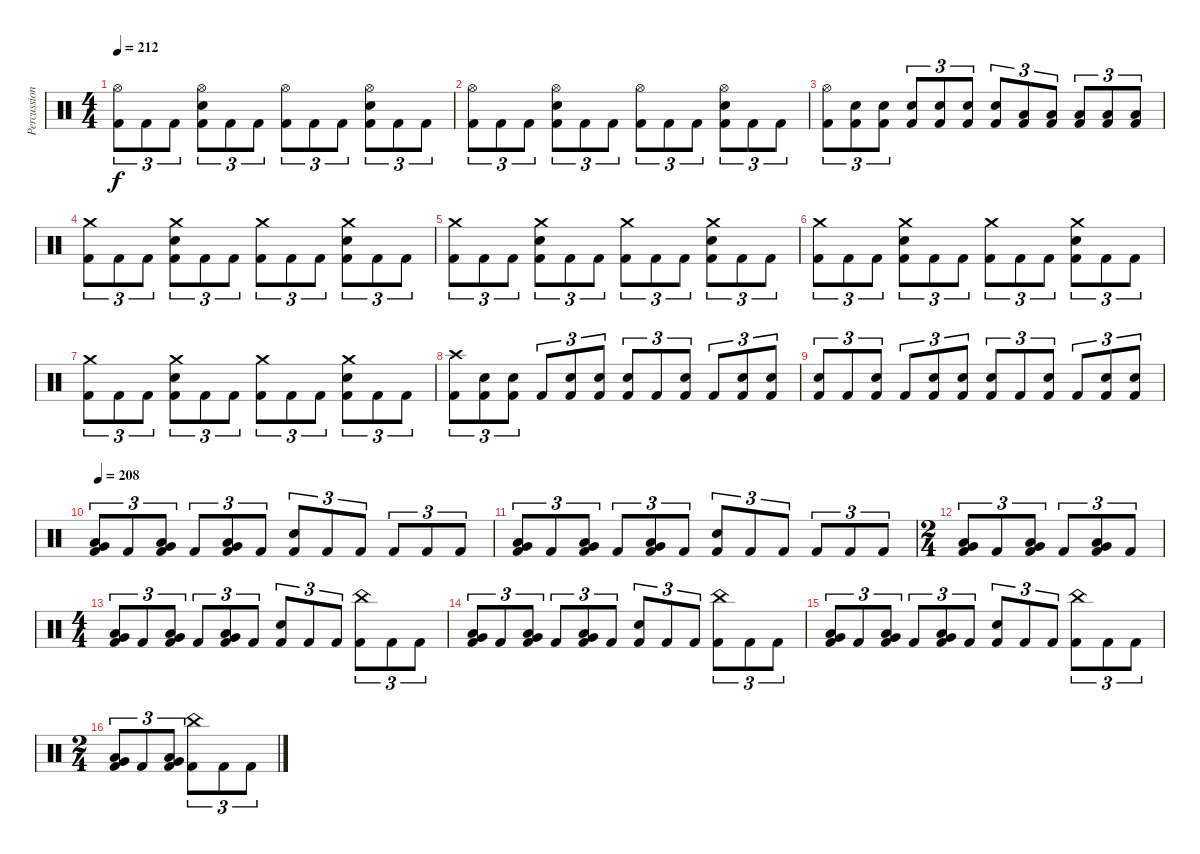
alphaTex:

\track ("Percussion" "Percussion") {instrument percussion}
\staff {score}
\articulation defaults
\ts (4 4)
\tempo 212
\clef neutral
\ks c
("Hi-Hat (open)" "Kick (hit) 2").8{tu (3 2) dy f} "Kick (hit) 2".8{tu (3 2)} "Kick (hit) 2".8{tu (3 2)} ("Hi-Hat (open)" "Snare (hit) 2" "Kick (hit) 2").8{tu (3 2)} "Kick (hit) 2".8{tu (3 2)} "Kick (hit) 2".8{tu (3 2)} ("Hi-Hat (open)" "Kick (hit) 2").8{tu (3 2)} "Kick (hit) 2".8{tu (3 2)} "Kick (hit) 2".8{tu (3 2)} ("Hi-Hat (open)" "Snare (hit) 2" "Kick (hit) 2").8{tu (3 2)} "Kick (hit) 2".8{tu (3 2)} "Kick (hit) 2".8{tu (3 2)} |
("Hi-Hat (open)" "Kick (hit) 2").8{tu (3 2)} "Kick (hit) 2".8{tu (3 2)} "Kick (hit) 2".8{tu (3 2)} ("Hi-Hat (open)" "Snare (hit) 2" "Kick (hit) 2").8{tu (3 2)} "Kick (hit) 2".8{tu (3 2)} "Kick (hit) 2".8{tu (3 2)} ("Hi-Hat (open)" "Kick (hit) 2").8{tu (3 2)} "Kick (hit) 2".8{tu (3 2)} "Kick (hit) 2".8{tu (3 2)} ("Hi-Hat (open)" "Snare (hit) 2" "Kick (hit) 2").8{tu (3 2)} "Kick (hit) 2".8{tu (3 2)} "Kick (hit) 2".8{tu (3 2)} |
("Hi-Hat (open)" "Kick (hit) 2").8{tu (3 2)} ("Snare (hit) 2" "Kick (hit) 2").8{tu (3 2)} ("Snare (hit) 2" "Kick (hit) 2").8{tu (3 2)} ("Snare (hit) 2" "Kick (hit) 2").8{tu (3 2)} ("Snare (hit) 2" "Kick (hit) 2").8{tu (3 2)} ("Snare (hit) 2" "Kick (hit) 2").8{tu (3 2)} ("Snare (hit) 2" "Kick (hit) 2").8{tu (3 2)} ("Low Tom (hit)" "Kick (hit) 2").8{tu (3 2)} ("Low Tom (hit)" "Kick (hit) 2").8{tu (3 2)} ("Low Tom (hit)" "Kick (hit) 2").8{tu (3 2)} ("Low Tom (hit)" "Kick (hit) 2").8{tu (3 2)} ("Low Tom (hit)" "Kick (hit) 2").8{tu (3 2)} |
("Crash medium (hit)" "Kick (hit) 2").8{tu (3 2)} "Kick (hit) 2".8{tu (3 2)} "Kick (hit) 2".8{tu (3 2)} ("Crash medium (hit)" "Snare (hit) 2" "Kick (hit) 2").8{tu (3 2)} "Kick (hit) 2".8{tu (3 2)} "Kick (hit) 2".8{tu (3 2)} ("Crash medium (hit)" "Kick (hit) 2").8{tu (3 2)} "Kick (hit) 2".8{tu (3 2)} "Kick (hit) 2".8{tu (3 2)} ("Crash medium (hit)" "Snare (hit) 2" "Kick (hit) 2").8{tu (3 2)} "Kick (hit) 2".8{tu (3 2)} "Kick (hit) 2".8{tu (3 2)} |
("Crash medium (hit)" "Kick (hit) 2").8{tu (3 2)} "Kick (hit) 2".8{tu (3 2)} "Kick (hit) 2".8{tu (3 2)} ("Crash medium (hit)" "Snare (hit) 2" "Kick (hit) 2").8{tu (3 2)} "Kick (hit) 2".8{tu (3 2)} "Kick (hit) 2".8{tu (3 2)} ("Crash medium (hit)" "Kick (hit) 2").8{tu (3 2)} "Kick (hit) 2".8{tu (3 2)} "Kick (hit) 2".8{tu (3 2)} ("Crash medium (hit)" "Snare (hit) 2" "Kick (hit) 2").8{tu (3 2)} "Kick (hit) 2".8{tu (3 2)} "Kick (hit) 2".8{tu (3 2)} |
("Crash medium (hit)" "Kick (hit) 2").8{tu (3 2)} "Kick (hit) 2".8{tu (3 2)} "Kick (hit) 2".8{tu (3 2)} ("Crash medium (hit)" "Snare (hit) 2" "Kick (hit) 2").8{tu (3 2)} "Kick (hit) 2".8{tu (3 2)} "Kick (hit) 2".8{tu (3 2)} ("Crash medium (hit)" "Kick (hit) 2").8{tu (3 2)} "Kick (hit) 2".8{tu (3 2)} "Kick (hit) 2".8{tu (3 2)} ("Crash medium (hit)" "Snare (hit) 2" "Kick (hit) 2").8{tu (3 2)} "Kick (hit) 2".8{tu (3 2)} "Kick (hit) 2".8{tu (3 2)} |
("Crash medium (hit)" "Kick (hit) 2").8{tu (3 2)} "Kick (hit) 2".8{tu (3 2)} "Kick (hit) 2".8{tu (3 2)} ("Crash medium (hit)" "Snare (hit) 2" "Kick (hit) 2").8{tu (3 2)} "Kick (hit) 2".8{tu (3 2)} "Kick (hit) 2".8{tu (3 2)} ("Crash medium (hit)" "Kick (hit) 2").8{tu (3 2)} "Kick (hit) 2".8{tu (3 2)} "Kick (hit) 2".8{tu (3 2)} ("Crash medium (hit)" "Snare (hit) 2" "Kick (hit) 2").8{tu (3 2)} "Kick (hit) 2".8{tu (3 2)} "Kick (hit) 2".8{tu (3 2)} |
("Crash high (hit)" "Kick (hit) 2").8{tu (3 2)} ("Snare (hit) 2" "Kick (hit) 2").8{tu (3 2)} ("Snare (hit) 2" "Kick (hit) 2").8{tu (3 2)} "Kick (hit) 2".8{tu (3 2)} ("Snare (hit) 2" "Kick (hit) 2").8{tu (3 2)} ("Snare (hit) 2" "Kick (hit) 2").8{tu (3 2)} ("Snare (hit) 2" "Kick (hit) 2").8{tu (3 2)} "Kick (hit) 2".8{tu (3 2)} ("Snare (hit) 2" "Kick (hit) 2").8{tu (3 2)} "Kick (hit) 2".8{tu (3 2)} ("Snare (hit) 2" "Kick (hit) 2").8{tu (3 2)} ("Snare (hit) 2" "Kick (hit) 2").8{tu (3 2)} |
("Snare (hit) 2" "Kick (hit) 2").8{tu (3 2)} "Kick (hit) 2".8{tu (3 2)} ("Snare (hit) 2" "Kick (hit) 2").8{tu (3 2)} "Kick (hit) 2".8{tu (3 2)} ("Snare (hit) 2" "Kick (hit) 2").8{tu (3 2)} ("Snare (hit) 2" "Kick (hit) 2").8{tu (3 2)} ("Snare (hit) 2" "Kick (hit) 2").8{tu (3 2)} "Kick (hit) 2".8{tu (3 2)} ("Snare (hit) 2" "Kick (hit) 2").8{tu (3 2)} "Kick (hit) 2".8{tu (3 2)} ("Snare (hit) 2" "Kick (hit) 2").8{tu (3 2)} ("Snare (hit) 2" "Kick (hit) 2").8{tu (3 2)} |
\tempo 208
("Very Low Tom (hit)" "Low Tom (hit)" "Kick (hit) 2").8{tu (3 2)} "Kick (hit) 2".8{tu (3 2)} ("Very Low Tom (hit)" "Low Tom (hit)" "Kick (hit) 2").8{tu (3 2)} "Kick (hit) 2".8{tu (3 2)} ("Very Low Tom (hit)" "Low Tom (hit)" "Kick (hit) 2").8{tu (3 2)} "Kick (hit) 2".8{tu (3 2)} ("Snare (hit) 2" "Kick (hit) 2").8{tu (3 2)} "Kick (hit) 2".8{tu (3 2)} "Kick (hit) 2".8{tu (3 2)} "Kick (hit) 2".8{tu (3 2)} "Kick (hit) 2".8{tu (3 2)} "Kick (hit) 2".8{tu (3 2)} |
("Very Low Tom (hit)" "Low Tom (hit)" "Kick (hit) 2").8{tu (3 2)} "Kick (hit) 2".8{tu (3 2)} ("Very Low Tom (hit)" "Low Tom (hit)" "Kick (hit) 2").8{tu (3 2)} "Kick (hit) 2".8{tu (3 2)} ("Very Low Tom (hit)" "Low Tom (hit)" "Kick (hit) 2").8{tu (3 2)} "Kick (hit) 2".8{tu (3 2)} ("Snare (hit) 2" "Kick (hit) 2").8{tu (3 2)} "Kick (hit) 2".8{tu (3 2)} "Kick (hit) 2".8{tu (3 2)} "Kick (hit) 2".8{tu (3 2)} "Kick (hit) 2".8{tu (3 2)} "Kick (hit) 2".8{tu (3 2)} |
\ts (2 4)
("Very Low Tom (hit)" "Low Tom (hit)" "Kick (hit) 2").8{tu (3 2)} "Kick (hit) 2".8{tu (3 2)} ("Very Low Tom (hit)" "Low Tom (hit)" "Kick (hit) 2").8{tu (3 2)} "Kick (hit) 2".8{tu (3 2)} ("Very Low Tom (hit)" "Low Tom (hit)" "Kick (hit) 2").8{tu (3 2)} "Kick (hit) 2".8{tu (3 2)} |
\ts (4 4)
("Very Low Tom (hit)" "Low Tom (hit)" "Kick (hit) 2").8{tu (3 2)} "Kick (hit) 2".8{tu (3 2)} ("Very Low Tom (hit)" "Low Tom (hit)" "Kick (hit) 2").8{tu (3 2)} "Kick (hit) 2".8{tu (3 2)} ("Very Low Tom (hit)" "Low Tom (hit)" "Kick (hit) 2").8{tu (3 2)} "Kick (hit) 2".8{tu (3 2)} ("Snare (hit) 2" "Kick (hit) 2").8{tu (3 2)} "Kick (hit) 2".8{tu (3 2)} "Kick (hit) 2".8{tu (3 2)} ("China (hit)" "Kick (hit) 2").8{tu (3 2)} "Kick (hit) 2".8{tu (3 2)} "Kick (hit) 2".8{tu (3 2)} |
("Very Low Tom (hit)" "Low Tom (hit)" "Kick (hit) 2").8{tu (3 2)} "Kick (hit) 2".8{tu (3 2)} ("Very Low Tom (hit)" "Low Tom (hit)" "Kick (hit) 2").8{tu (3 2)} "Kick (hit) 2".8{tu (3 2)} ("Very Low Tom (hit)" "Low Tom (hit)" "Kick (hit) 2").8{tu (3 2)} "Kick (hit) 2".8{tu (3 2)} ("Snare (hit) 2" "Kick (hit) 2").8{tu (3 2)} "Kick (hit) 2".8{tu (3 2)} "Kick (hit) 2".8{tu (3 2)} ("China (hit)" "Kick (hit) 2").8{tu (3 2)} "Kick (hit) 2".8{tu (3 2)} "Kick (hit) 2".8{tu (3 2)} |
("Very Low Tom (hit)" "Low Tom (hit)" "Kick (hit) 2").8{tu (3 2)} "Kick (hit) 2".8{tu (3 2)} ("Very Low Tom (hit)" "Low Tom (hit)" "Kick (hit) 2").8{tu (3 2)} "Kick (hit) 2".8{tu (3 2)} ("Very Low Tom (hit)" "Low Tom (hit)" "Kick (hit) 2").8{tu (3 2)} "Kick (hit) 2".8{tu (3 2)} ("Snare (hit) 2" "Kick (hit) 2").8{tu (3 2)} "Kick (hit) 2".8{tu (3 2)} "Kick (hit) 2".8{tu (3 2)} ("China (hit)" "Kick (hit) 2").8{tu (3 2)} "Kick (hit) 2".8{tu (3 2)} "Kick (hit) 2".8{tu (3 2)} |
\ts (2 4)
("Very Low Tom (hit)" "Low Tom (hit)" "Kick (hit) 2").8{tu (3 2)} "Kick (hit) 2".8{tu (3 2)} ("Very Low Tom (hit)" "Low Tom (hit)" "Kick (hit) 2").8{tu (3 2)} ("China (hit)" "Kick (hit) 2").8{tu (3 2)} "Kick (hit) 2".8{tu (3 2)} "Kick (hit) 2".8{tu (3 2)}
